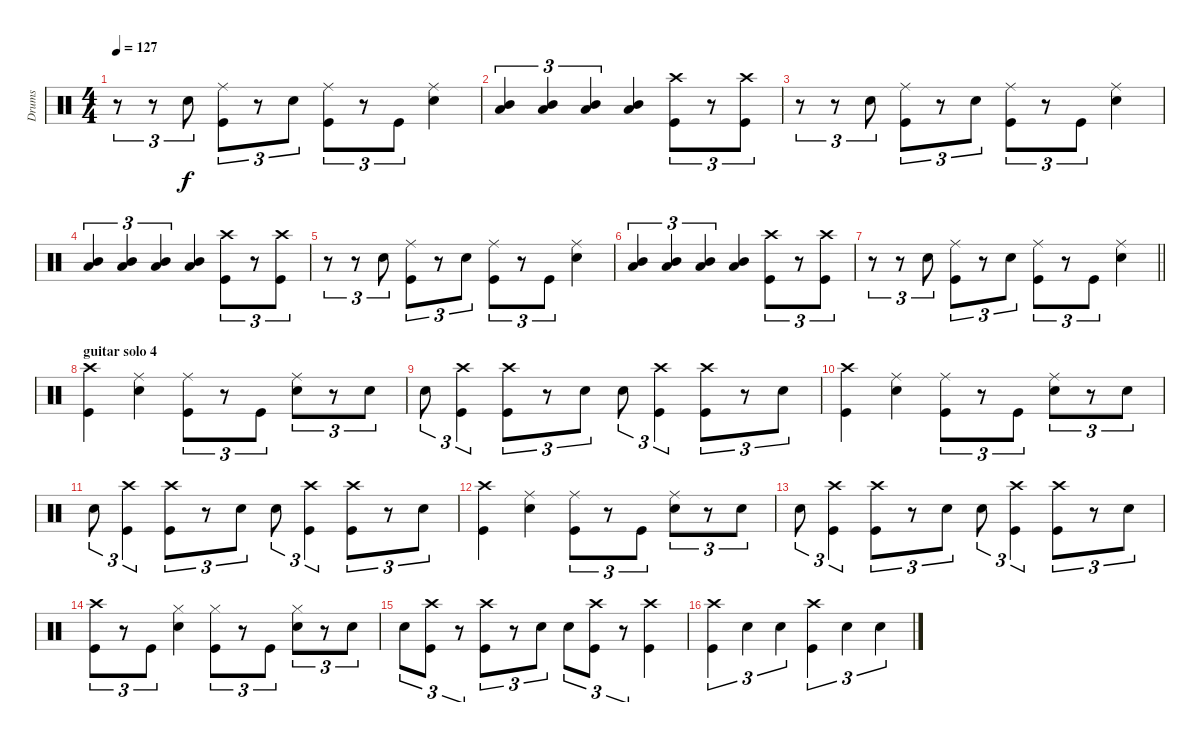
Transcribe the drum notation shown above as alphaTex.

\track ("Drums" "Drums") {instrument percussion}
\staff {score}
\articulation defaults
\ts (4 4)
\tempo 127
\clef neutral
\ks c
r.8{tu (3 2) dy f} r.8{tu (3 2)} "Snare (hit) 2".8{tu (3 2)} ("Ride (middle)" "Kick (hit)").8{tu (3 2)} r.8{tu (3 2)} "Snare (hit) 2".8{tu (3 2)} ("Ride (middle)" "Kick (hit)").8{tu (3 2)} r.8{tu (3 2)} "Kick (hit)".8{tu (3 2)} ("Snare (hit) 2" "Ride (middle)").4 |
("Mid Tom (hit)" "Low Tom (hit)").4{tu (3 2)} ("Low Tom (hit)" "Mid Tom (hit)").4{tu (3 2)} ("Mid Tom (hit)" "Low Tom (hit)").4{tu (3 2)} ("Low Tom (hit)" "Mid Tom (hit)").4 ("Crash high (hit)" "Kick (hit)").8{tu (3 2)} r.8{tu (3 2)} ("Crash high (hit)" "Kick (hit)").8{tu (3 2)} |
r.8{tu (3 2)} r.8{tu (3 2)} "Snare (hit) 2".8{tu (3 2)} ("Ride (middle)" "Kick (hit)").8{tu (3 2)} r.8{tu (3 2)} "Snare (hit) 2".8{tu (3 2)} ("Ride (middle)" "Kick (hit)").8{tu (3 2)} r.8{tu (3 2)} "Kick (hit)".8{tu (3 2)} ("Snare (hit) 2" "Ride (middle)").4 |
("Mid Tom (hit)" "Low Tom (hit)").4{tu (3 2)} ("Low Tom (hit)" "Mid Tom (hit)").4{tu (3 2)} ("Mid Tom (hit)" "Low Tom (hit)").4{tu (3 2)} ("Low Tom (hit)" "Mid Tom (hit)").4 ("Crash high (hit)" "Kick (hit)").8{tu (3 2)} r.8{tu (3 2)} ("Crash high (hit)" "Kick (hit)").8{tu (3 2)} |
r.8{tu (3 2)} r.8{tu (3 2)} "Snare (hit) 2".8{tu (3 2)} ("Ride (middle)" "Kick (hit)").8{tu (3 2)} r.8{tu (3 2)} "Snare (hit) 2".8{tu (3 2)} ("Ride (middle)" "Kick (hit)").8{tu (3 2)} r.8{tu (3 2)} "Kick (hit)".8{tu (3 2)} ("Snare (hit) 2" "Ride (middle)").4 |
("Mid Tom (hit)" "Low Tom (hit)").4{tu (3 2)} ("Low Tom (hit)" "Mid Tom (hit)").4{tu (3 2)} ("Mid Tom (hit)" "Low Tom (hit)").4{tu (3 2)} ("Low Tom (hit)" "Mid Tom (hit)").4 ("Crash high (hit)" "Kick (hit)").8{tu (3 2)} r.8{tu (3 2)} ("Crash high (hit)" "Kick (hit)").8{tu (3 2)} |
\barLineRight lightlight
r.8{tu (3 2)} r.8{tu (3 2)} "Snare (hit) 2".8{tu (3 2)} ("Ride (middle)" "Kick (hit)").8{tu (3 2)} r.8{tu (3 2)} "Snare (hit) 2".8{tu (3 2)} ("Ride (middle)" "Kick (hit)").8{tu (3 2)} r.8{tu (3 2)} "Kick (hit)".8{tu (3 2)} ("Snare (hit) 2" "Ride (middle)").4 |
\section ("" "guitar solo 4")
("Crash high (hit)" "Kick (hit)").4 ("Snare (hit) 2" "Ride (middle)").4 ("Ride (middle)" "Kick (hit)").8{tu (3 2)} r.8{tu (3 2)} "Kick (hit)".8{tu (3 2)} ("Snare (hit) 2" "Ride (middle)").8{tu (3 2)} r.8{tu (3 2)} "Snare (hit) 2".8{tu (3 2)} |
"Snare (hit) 2".8{tu (3 2)} ("Crash high (hit)" "Kick (hit)").4{tu (3 2)} ("Crash high (hit)" "Kick (hit)").8{tu (3 2)} r.8{tu (3 2)} "Snare (hit) 2".8{tu (3 2)} "Snare (hit) 2".8{tu (3 2)} ("Crash high (hit)" "Kick (hit)").4{tu (3 2)} ("Crash high (hit)" "Kick (hit)").8{tu (3 2)} r.8{tu (3 2)} "Snare (hit) 2".8{tu (3 2)} |
("Crash high (hit)" "Kick (hit)").4 ("Snare (hit) 2" "Ride (middle)").4 ("Ride (middle)" "Kick (hit)").8{tu (3 2)} r.8{tu (3 2)} "Kick (hit)".8{tu (3 2)} ("Snare (hit) 2" "Ride (middle)").8{tu (3 2)} r.8{tu (3 2)} "Snare (hit) 2".8{tu (3 2)} |
"Snare (hit) 2".8{tu (3 2)} ("Crash high (hit)" "Kick (hit)").4{tu (3 2)} ("Crash high (hit)" "Kick (hit)").8{tu (3 2)} r.8{tu (3 2)} "Snare (hit) 2".8{tu (3 2)} "Snare (hit) 2".8{tu (3 2)} ("Crash high (hit)" "Kick (hit)").4{tu (3 2)} ("Crash high (hit)" "Kick (hit)").8{tu (3 2)} r.8{tu (3 2)} "Snare (hit) 2".8{tu (3 2)} |
("Crash high (hit)" "Kick (hit)").4 ("Snare (hit) 2" "Ride (middle)").4 ("Ride (middle)" "Kick (hit)").8{tu (3 2)} r.8{tu (3 2)} "Kick (hit)".8{tu (3 2)} ("Snare (hit) 2" "Ride (middle)").8{tu (3 2)} r.8{tu (3 2)} "Snare (hit) 2".8{tu (3 2)} |
"Snare (hit) 2".8{tu (3 2)} ("Crash high (hit)" "Kick (hit)").4{tu (3 2)} ("Crash high (hit)" "Kick (hit)").8{tu (3 2)} r.8{tu (3 2)} "Snare (hit) 2".8{tu (3 2)} "Snare (hit) 2".8{tu (3 2)} ("Crash high (hit)" "Kick (hit)").4{tu (3 2)} ("Crash high (hit)" "Kick (hit)").8{tu (3 2)} r.8{tu (3 2)} "Snare (hit) 2".8{tu (3 2)} |
("Kick (hit)" "Crash high (hit)").8{tu (3 2)} r.8{tu (3 2)} "Kick (hit)".8{tu (3 2)} ("Hi-Hat (closed)" "Snare (hit) 2").4 ("Hi-Hat (closed)" "Kick (hit)").8{tu (3 2)} r.8{tu (3 2)} "Kick (hit)".8{tu (3 2)} ("Snare (hit) 2" "Hi-Hat (closed)").8{tu (3 2)} r.8{tu (3 2)} "Snare (hit) 2".8{tu (3 2)} |
"Snare (hit) 2".8{tu (3 2)} ("Crash high (hit)" "Kick (hit)").8{tu (3 2)} r.8{tu (3 2)} ("Crash high (hit)" "Kick (hit)").8{tu (3 2)} r.8{tu (3 2)} "Snare (hit) 2".8{tu (3 2)} "Snare (hit) 2".8{tu (3 2)} ("Kick (hit)" "Crash high (hit)").8{tu (3 2)} r.8{tu (3 2)} ("Crash high (hit)" "Kick (hit)").4 |
("Crash high (hit)" "Kick (hit)").4{tu (3 2)} "Snare (hit) 2".4{tu (3 2)} "Snare (hit) 2".4{tu (3 2)} ("Crash high (hit)" "Kick (hit)").4{tu (3 2)} "Snare (hit) 2".4{tu (3 2)} "Snare (hit) 2".4{tu (3 2)}
